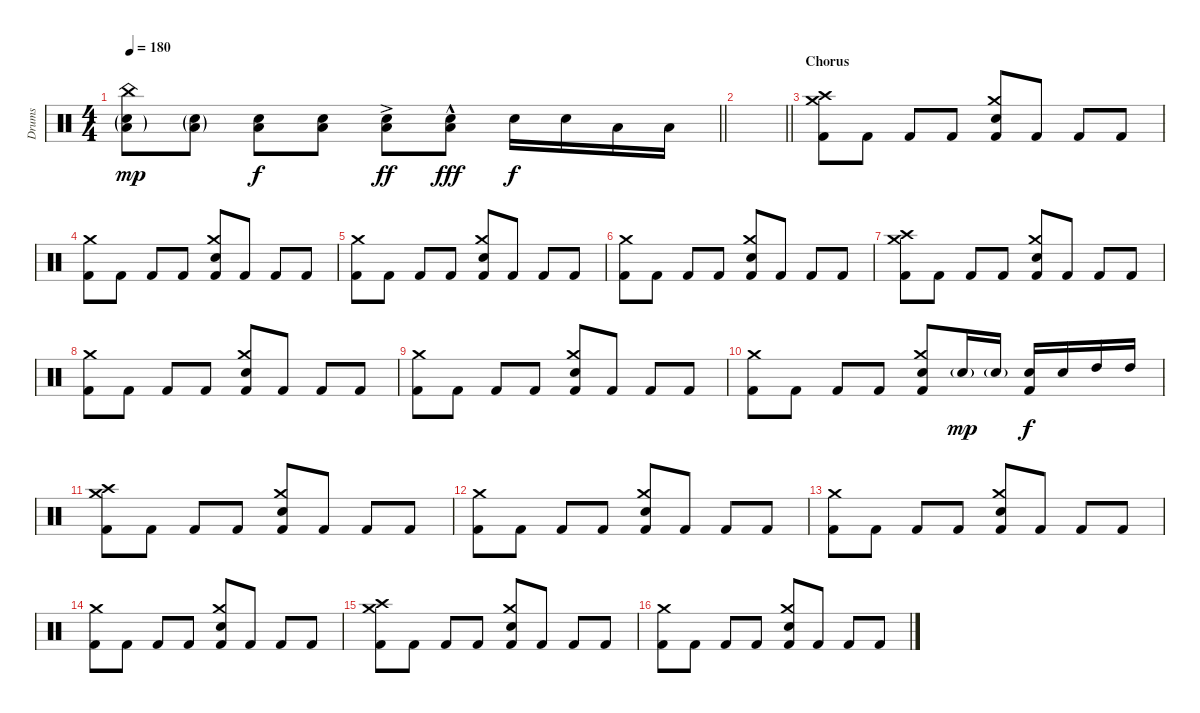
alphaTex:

\track ("Drums" "Drums") {instrument percussion}
\staff {score}
\articulation defaults
\ts (4 4)
\tempo 180
\clef neutral
\barLineRight lightlight
\ks c
("China (hit)" "Low Tom (hit)"{g} "Snare (hit) 2"{g}).8{dy mp} ("Low Tom (hit)"{g} "Snare (hit) 2"{g}).8 ("Low Tom (hit)" "Snare (hit) 2").8{dy f} ("Low Tom (hit)" "Snare (hit) 2").8 ("Low Tom (hit)"{ac} "Snare (hit) 2"{ac}).8{dy ff} ("Low Tom (hit)"{hac} "Snare (hit) 2"{hac}).8{dy fff} "Snare (hit) 2".16{dy f} "Snare (hit) 2".16 "Low Tom (hit)".16 "Low Tom (hit)".16 |
\barLineRight lightlight
|
\section ("" "Chorus")
("Crash high (hit)" "Crash medium (hit)" "Kick (hit) 2").8 "Kick (hit) 2".8 "Kick (hit) 2".8 "Kick (hit) 2".8 ("Crash medium (hit)" "Snare (hit) 2" "Kick (hit) 2").8 "Kick (hit) 2".8 "Kick (hit) 2".8 "Kick (hit) 2".8 |
("Crash medium (hit)" "Kick (hit) 2").8 "Kick (hit) 2".8 "Kick (hit) 2".8 "Kick (hit) 2".8 ("Crash medium (hit)" "Snare (hit) 2" "Kick (hit) 2").8 "Kick (hit) 2".8 "Kick (hit) 2".8 "Kick (hit) 2".8 |
("Crash medium (hit)" "Kick (hit) 2").8 "Kick (hit) 2".8 "Kick (hit) 2".8 "Kick (hit) 2".8 ("Crash medium (hit)" "Snare (hit) 2" "Kick (hit) 2").8 "Kick (hit) 2".8 "Kick (hit) 2".8 "Kick (hit) 2".8 |
("Crash medium (hit)" "Kick (hit) 2").8 "Kick (hit) 2".8 "Kick (hit) 2".8 "Kick (hit) 2".8 ("Crash medium (hit)" "Snare (hit) 2" "Kick (hit) 2").8 "Kick (hit) 2".8 "Kick (hit) 2".8 "Kick (hit) 2".8 |
("Crash high (hit)" "Crash medium (hit)" "Kick (hit) 2").8 "Kick (hit) 2".8 "Kick (hit) 2".8 "Kick (hit) 2".8 ("Crash medium (hit)" "Snare (hit) 2" "Kick (hit) 2").8 "Kick (hit) 2".8 "Kick (hit) 2".8 "Kick (hit) 2".8 |
("Crash medium (hit)" "Kick (hit) 2").8 "Kick (hit) 2".8 "Kick (hit) 2".8 "Kick (hit) 2".8 ("Crash medium (hit)" "Snare (hit) 2" "Kick (hit) 2").8 "Kick (hit) 2".8 "Kick (hit) 2".8 "Kick (hit) 2".8 |
("Crash medium (hit)" "Kick (hit) 2").8 "Kick (hit) 2".8 "Kick (hit) 2".8 "Kick (hit) 2".8 ("Crash medium (hit)" "Snare (hit) 2" "Kick (hit) 2").8 "Kick (hit) 2".8 "Kick (hit) 2".8 "Kick (hit) 2".8 |
("Crash medium (hit)" "Kick (hit) 2").8 "Kick (hit) 2".8 "Kick (hit) 2".8 "Kick (hit) 2".8 ("Crash medium (hit)" "Snare (hit) 2" "Kick (hit) 2").8 "Snare (hit) 2"{g}.16{dy mp} "Snare (hit) 2"{g}.16 ("Snare (hit) 2" "Kick (hit) 2").16{dy f} "Snare (hit) 2".16 "High Tom (hit)".16 "High Tom (hit)".16 |
("Crash high (hit)" "Crash medium (hit)" "Kick (hit) 2").8 "Kick (hit) 2".8 "Kick (hit) 2".8 "Kick (hit) 2".8 ("Crash medium (hit)" "Snare (hit) 2" "Kick (hit) 2").8 "Kick (hit) 2".8 "Kick (hit) 2".8 "Kick (hit) 2".8 |
("Crash medium (hit)" "Kick (hit) 2").8 "Kick (hit) 2".8 "Kick (hit) 2".8 "Kick (hit) 2".8 ("Crash medium (hit)" "Snare (hit) 2" "Kick (hit) 2").8 "Kick (hit) 2".8 "Kick (hit) 2".8 "Kick (hit) 2".8 |
("Crash medium (hit)" "Kick (hit) 2").8 "Kick (hit) 2".8 "Kick (hit) 2".8 "Kick (hit) 2".8 ("Crash medium (hit)" "Snare (hit) 2" "Kick (hit) 2").8 "Kick (hit) 2".8 "Kick (hit) 2".8 "Kick (hit) 2".8 |
("Crash medium (hit)" "Kick (hit) 2").8 "Kick (hit) 2".8 "Kick (hit) 2".8 "Kick (hit) 2".8 ("Crash medium (hit)" "Snare (hit) 2" "Kick (hit) 2").8 "Kick (hit) 2".8 "Kick (hit) 2".8 "Kick (hit) 2".8 |
("Crash high (hit)" "Crash medium (hit)" "Kick (hit) 2").8 "Kick (hit) 2".8 "Kick (hit) 2".8 "Kick (hit) 2".8 ("Crash medium (hit)" "Snare (hit) 2" "Kick (hit) 2").8 "Kick (hit) 2".8 "Kick (hit) 2".8 "Kick (hit) 2".8 |
("Crash medium (hit)" "Kick (hit) 2").8 "Kick (hit) 2".8 "Kick (hit) 2".8 "Kick (hit) 2".8 ("Crash medium (hit)" "Snare (hit) 2" "Kick (hit) 2").8 "Kick (hit) 2".8 "Kick (hit) 2".8 "Kick (hit) 2".8
